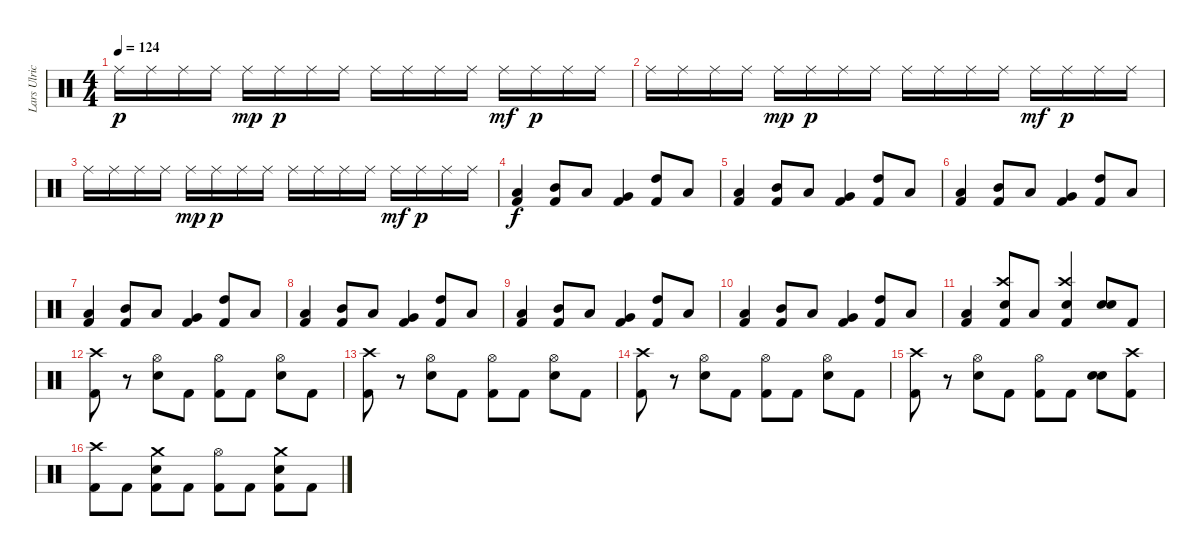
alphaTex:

\track ("Lars Ulrich" "Lars Ulric") {instrument percussion}
\staff {score}
\articulation defaults
\ts (4 4)
\tempo 124
\clef neutral
\ks c "Ride (middle)".16{dy p} "Ride (middle)".16 "Ride (middle)".16 "Ride (middle)".16 "Ride (middle)".16{dy mp} "Ride (middle)".16{dy p} "Ride (middle)".16 "Ride (middle)".16 "Ride (middle)".16 "Ride (middle)".16 "Ride (middle)".16 "Ride (middle)".16 "Ride (middle)".16{dy mf} "Ride (middle)".16{dy p} "Ride (middle)".16 "Ride (middle)".16
|
"Ride (middle)".16 "Ride (middle)".16 "Ride (middle)".16 "Ride (middle)".16 "Ride (middle)".16{dy mp} "Ride (middle)".16{dy p} "Ride (middle)".16 "Ride (middle)".16 "Ride (middle)".16 "Ride (middle)".16 "Ride (middle)".16 "Ride (middle)".16 "Ride (middle)".16{dy mf} "Ride (middle)".16{dy p} "Ride (middle)".16 "Ride (middle)".16 |
"Ride (middle)".16 "Ride (middle)".16 "Ride (middle)".16 "Ride (middle)".16 "Ride (middle)".16{dy mp} "Ride (middle)".16{dy p} "Ride (middle)".16 "Ride (middle)".16 "Ride (middle)".16 "Ride (middle)".16 "Ride (middle)".16 "Ride (middle)".16 "Ride (middle)".16{dy mf} "Ride (middle)".16{dy p} "Ride (middle)".16 "Ride (middle)".16 |
("Low Floor Tom (hit)" "Kick (hit) 2").4{dy f} ("Mid Tom (hit)" "Kick (hit) 2").8 "Low Floor Tom (hit)".8 ("Very Low Tom (hit)" "Kick (hit) 2").4 ("High Tom (hit)" "Kick (hit) 2").8 "Low Tom (hit)".8 |
("Low Floor Tom (hit)" "Kick (hit) 2").4 ("Mid Tom (hit)" "Kick (hit) 2").8 "Low Floor Tom (hit)".8 ("Very Low Tom (hit)" "Kick (hit) 2").4 ("High Tom (hit)" "Kick (hit) 2").8 "Low Tom (hit)".8 |
("Low Floor Tom (hit)" "Kick (hit) 2").4 ("Mid Tom (hit)" "Kick (hit) 2").8 "Low Floor Tom (hit)".8 ("Very Low Tom (hit)" "Kick (hit) 2").4 ("High Tom (hit)" "Kick (hit) 2").8 "Low Tom (hit)".8 |
("Low Floor Tom (hit)" "Kick (hit) 2").4 ("Mid Tom (hit)" "Kick (hit) 2").8 "Low Floor Tom (hit)".8 ("Very Low Tom (hit)" "Kick (hit) 2").4 ("High Tom (hit)" "Kick (hit) 2").8 "Low Tom (hit)".8 |
("Low Floor Tom (hit)" "Kick (hit) 2").4 ("Mid Tom (hit)" "Kick (hit) 2").8 "Low Floor Tom (hit)".8 ("Very Low Tom (hit)" "Kick (hit) 2").4 ("High Tom (hit)" "Kick (hit) 2").8 "Low Tom (hit)".8 |
("Low Floor Tom (hit)" "Kick (hit) 2").4 ("Mid Tom (hit)" "Kick (hit) 2").8 "Low Floor Tom (hit)".8 ("Very Low Tom (hit)" "Kick (hit) 2").4 ("High Tom (hit)" "Kick (hit) 2").8 "Low Tom (hit)".8 |
("Low Floor Tom (hit)" "Kick (hit) 2").4 ("Mid Tom (hit)" "Kick (hit) 2").8 "Low Floor Tom (hit)".8 ("Very Low Tom (hit)" "Kick (hit) 2").4 ("High Tom (hit)" "Kick (hit) 2").8 "Low Tom (hit)".8 |
("Low Floor Tom (hit)" "Kick (hit) 2").4 ("Crash high (hit)" "Electric Snare (hit)" "Kick (hit) 2").8 "Low Floor Tom (hit)".8 ("Crash high (hit)" "Electric Snare (hit)" "Kick (hit) 2").4 ("Electric Snare (hit)" "Electric Snare (hit)").8{bd 240} "Kick (hit) 2".8 |
("Crash high (hit)" "Kick (hit) 2").8 r.8 ("Hi-Hat (open)" "Electric Snare (hit)").8 "Kick (hit) 2".8 ("Hi-Hat (open)" "Kick (hit) 2").8 "Kick (hit) 2".8 ("Hi-Hat (open)" "Electric Snare (hit)").8 "Kick (hit) 2".8 |
("Crash high (hit)" "Kick (hit) 2").8 r.8 ("Hi-Hat (open)" "Electric Snare (hit)").8 "Kick (hit) 2".8 ("Hi-Hat (open)" "Kick (hit) 2").8 "Kick (hit) 2".8 ("Hi-Hat (open)" "Electric Snare (hit)").8 "Kick (hit) 2".8 |
("Crash high (hit)" "Kick (hit) 2").8 r.8 ("Hi-Hat (open)" "Electric Snare (hit)").8 "Kick (hit) 2".8 ("Hi-Hat (open)" "Kick (hit) 2").8 "Kick (hit) 2".8 ("Hi-Hat (open)" "Electric Snare (hit)").8 "Kick (hit) 2".8 |
("Crash high (hit)" "Kick (hit) 2").8 r.8 ("Hi-Hat (open)" "Electric Snare (hit)").8 "Kick (hit) 2".8 ("Hi-Hat (open)" "Kick (hit) 2").8 "Kick (hit) 2".8 ("Electric Snare (hit)" "Electric Snare (hit)").8{bd 240} ("Crash high (hit)" "Kick (hit) 2").8 |
("Crash high (hit)" "Kick (hit) 2").8 "Kick (hit) 2".8 ("Crash medium (hit)" "Electric Snare (hit)" "Kick (hit) 2").8 "Kick (hit) 2".8 ("Hi-Hat (open)" "Kick (hit) 2").8 "Kick (hit) 2".8 ("Crash medium (hit)" "Electric Snare (hit)" "Kick (hit) 2").8 "Kick (hit) 2".8
